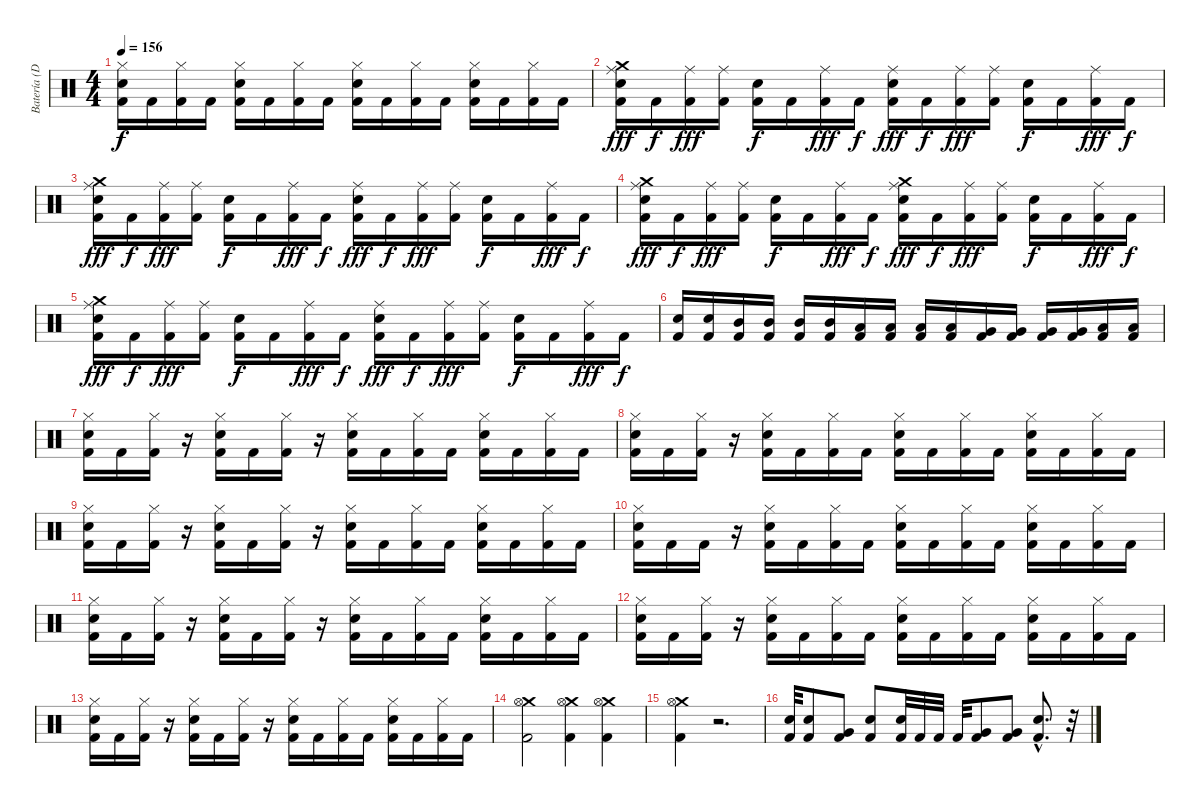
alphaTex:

\track ("Batería (Dani)" "Batería (D") {instrument percussion}
\staff {score}
\articulation defaults
\ts (4 4)
\tempo 156
\clef neutral
\ks c
("Hi-Hat (closed)" "Snare (hit) 2" "Kick (hit) 2").16{dy f} "Kick (hit) 2".16 ("Hi-Hat (closed)" "Kick (hit) 2").16 "Kick (hit) 2".16 ("Hi-Hat (closed)" "Snare (hit) 2" "Kick (hit) 2").16 "Kick (hit) 2".16 ("Hi-Hat (closed)" "Kick (hit) 2").16 "Kick (hit) 2".16 ("Hi-Hat (closed)" "Snare (hit) 2" "Kick (hit) 2").16 "Kick (hit) 2".16 ("Hi-Hat (closed)" "Kick (hit) 2").16 "Kick (hit) 2".16 ("Hi-Hat (closed)" "Snare (hit) 2" "Kick (hit) 2").16 "Kick (hit) 2".16 ("Hi-Hat (closed)" "Kick (hit) 2").16 "Kick (hit) 2".16 |
("Crash medium (hit)" "Ride (middle)" "Snare (hit) 2" "Kick (hit) 2").16{dy fff} "Kick (hit) 2".16{dy f} ("Ride (middle)" "Kick (hit) 2").16{dy fff} ("Ride (middle)" "Kick (hit) 2").16 ("Snare (hit) 2" "Kick (hit) 2").16{dy f} "Kick (hit) 2".16 ("Ride (middle)" "Kick (hit) 2").16{dy fff} "Kick (hit) 2".16{dy f} ("Ride (middle)" "Snare (hit) 2" "Kick (hit) 2").16{dy fff} "Kick (hit) 2".16{dy f} ("Ride (middle)" "Kick (hit) 2").16{dy fff} ("Ride (middle)" "Kick (hit) 2").16 ("Snare (hit) 2" "Kick (hit) 2").16{dy f} "Kick (hit) 2".16 ("Ride (middle)" "Kick (hit) 2").16{dy fff} "Kick (hit) 2".16{dy f} |
("Crash medium (hit)" "Ride (middle)" "Snare (hit) 2" "Kick (hit) 2").16{dy fff} "Kick (hit) 2".16{dy f} ("Ride (middle)" "Kick (hit) 2").16{dy fff} ("Ride (middle)" "Kick (hit) 2").16 ("Snare (hit) 2" "Kick (hit) 2").16{dy f} "Kick (hit) 2".16 ("Ride (middle)" "Kick (hit) 2").16{dy fff} "Kick (hit) 2".16{dy f} ("Ride (middle)" "Snare (hit) 2" "Kick (hit) 2").16{dy fff} "Kick (hit) 2".16{dy f} ("Ride (middle)" "Kick (hit) 2").16{dy fff} ("Ride (middle)" "Kick (hit) 2").16 ("Snare (hit) 2" "Kick (hit) 2").16{dy f} "Kick (hit) 2".16 ("Ride (middle)" "Kick (hit) 2").16{dy fff} "Kick (hit) 2".16{dy f} |
("Crash medium (hit)" "Ride (middle)" "Snare (hit) 2" "Kick (hit) 2").16{dy fff} "Kick (hit) 2".16{dy f} ("Ride (middle)" "Kick (hit) 2").16{dy fff} ("Ride (middle)" "Kick (hit) 2").16 ("Snare (hit) 2" "Kick (hit) 2").16{dy f} "Kick (hit) 2".16 ("Ride (middle)" "Kick (hit) 2").16{dy fff} "Kick (hit) 2".16{dy f} ("Crash medium (hit)" "Ride (middle)" "Snare (hit) 2" "Kick (hit) 2").16{dy fff} "Kick (hit) 2".16{dy f} ("Ride (middle)" "Kick (hit) 2").16{dy fff} ("Ride (middle)" "Kick (hit) 2").16 ("Snare (hit) 2" "Kick (hit) 2").16{dy f} "Kick (hit) 2".16 ("Ride (middle)" "Kick (hit) 2").16{dy fff} "Kick (hit) 2".16{dy f} |
("Crash medium (hit)" "Ride (middle)" "Snare (hit) 2" "Kick (hit) 2").16{dy fff} "Kick (hit) 2".16{dy f} ("Ride (middle)" "Kick (hit) 2").16{dy fff} ("Ride (middle)" "Kick (hit) 2").16 ("Snare (hit) 2" "Kick (hit) 2").16{dy f} "Kick (hit) 2".16 ("Ride (middle)" "Kick (hit) 2").16{dy fff} "Kick (hit) 2".16{dy f} ("Ride (middle)" "Snare (hit) 2" "Kick (hit) 2").16{dy fff} "Kick (hit) 2".16{dy f} ("Ride (middle)" "Kick (hit) 2").16{dy fff} ("Ride (middle)" "Kick (hit) 2").16 ("Snare (hit) 2" "Kick (hit) 2").16{dy f} "Kick (hit) 2".16 ("Ride (middle)" "Kick (hit) 2").16{dy fff} "Kick (hit) 2".16{dy f} |
("Snare (hit) 2" "Kick (hit) 2").16 ("Snare (hit) 2" "Kick (hit) 2").16 ("Mid Tom (hit)" "Kick (hit) 2").16 ("Mid Tom (hit)" "Kick (hit) 2").16 ("Mid Tom (hit)" "Kick (hit) 2").16 ("Mid Tom (hit)" "Kick (hit) 2").16 ("Low Tom (hit)" "Kick (hit) 2").16 ("Low Tom (hit)" "Kick (hit) 2").16 ("Low Tom (hit)" "Kick (hit) 2").16 ("Low Tom (hit)" "Kick (hit) 2").16 ("Very Low Tom (hit)" "Kick (hit) 2").16 ("Very Low Tom (hit)" "Kick (hit) 2").16 ("Very Low Tom (hit)" "Kick (hit) 2").16 ("Very Low Tom (hit)" "Kick (hit) 2").16 ("Low Floor Tom (hit)" "Kick (hit) 2").16 ("Low Floor Tom (hit)" "Kick (hit) 2").16 |
("Hi-Hat (closed)" "Snare (hit) 2" "Kick (hit) 2").16 "Kick (hit) 2".16 ("Hi-Hat (closed)" "Kick (hit) 2").16 r.16 ("Hi-Hat (closed)" "Snare (hit) 2" "Kick (hit) 2").16 "Kick (hit) 2".16 ("Hi-Hat (closed)" "Kick (hit) 2").16 r.16 ("Hi-Hat (closed)" "Snare (hit) 2" "Kick (hit) 2").16 "Kick (hit) 2".16 ("Hi-Hat (closed)" "Kick (hit) 2").16 "Kick (hit) 2".16 ("Hi-Hat (closed)" "Snare (hit) 2" "Kick (hit) 2").16 "Kick (hit) 2".16 ("Hi-Hat (closed)" "Kick (hit) 2").16 "Kick (hit) 2".16 |
("Hi-Hat (closed)" "Snare (hit) 2" "Kick (hit) 2").16 "Kick (hit) 2".16 ("Hi-Hat (closed)" "Kick (hit) 2").16 r.16 ("Hi-Hat (closed)" "Snare (hit) 2" "Kick (hit) 2").16 "Kick (hit) 2".16 ("Hi-Hat (closed)" "Kick (hit) 2").16 "Kick (hit) 2".16 ("Hi-Hat (closed)" "Snare (hit) 2" "Kick (hit) 2").16 "Kick (hit) 2".16 ("Hi-Hat (closed)" "Kick (hit) 2").16 "Kick (hit) 2".16 ("Hi-Hat (closed)" "Snare (hit) 2" "Kick (hit) 2").16 "Kick (hit) 2".16 ("Hi-Hat (closed)" "Kick (hit) 2").16 "Kick (hit) 2".16 |
("Hi-Hat (closed)" "Snare (hit) 2" "Kick (hit) 2").16 "Kick (hit) 2".16 ("Hi-Hat (closed)" "Kick (hit) 2").16 r.16 ("Hi-Hat (closed)" "Snare (hit) 2" "Kick (hit) 2").16 "Kick (hit) 2".16 ("Hi-Hat (closed)" "Kick (hit) 2").16 r.16 ("Hi-Hat (closed)" "Snare (hit) 2" "Kick (hit) 2").16 "Kick (hit) 2".16 ("Hi-Hat (closed)" "Kick (hit) 2").16 "Kick (hit) 2".16 ("Hi-Hat (closed)" "Snare (hit) 2" "Kick (hit) 2").16 "Kick (hit) 2".16 ("Hi-Hat (closed)" "Kick (hit) 2").16 "Kick (hit) 2".16 |
("Hi-Hat (closed)" "Snare (hit) 2" "Kick (hit) 2").16 "Kick (hit) 2".16 "Kick (hit) 2".16 r.16 ("Hi-Hat (closed)" "Snare (hit) 2" "Kick (hit) 2").16 "Kick (hit) 2".16 ("Hi-Hat (closed)" "Kick (hit) 2").16 "Kick (hit) 2".16 ("Hi-Hat (closed)" "Snare (hit) 2" "Kick (hit) 2").16 "Kick (hit) 2".16 ("Hi-Hat (closed)" "Kick (hit) 2").16 "Kick (hit) 2".16 ("Hi-Hat (closed)" "Snare (hit) 2" "Kick (hit) 2").16 "Kick (hit) 2".16 ("Hi-Hat (closed)" "Kick (hit) 2").16 "Kick (hit) 2".16 |
("Hi-Hat (closed)" "Snare (hit) 2" "Kick (hit) 2").16 "Kick (hit) 2".16 ("Hi-Hat (closed)" "Kick (hit) 2").16 r.16 ("Hi-Hat (closed)" "Snare (hit) 2" "Kick (hit) 2").16 "Kick (hit) 2".16 ("Hi-Hat (closed)" "Kick (hit) 2").16 r.16 ("Hi-Hat (closed)" "Snare (hit) 2" "Kick (hit) 2").16 "Kick (hit) 2".16 ("Hi-Hat (closed)" "Kick (hit) 2").16 "Kick (hit) 2".16 ("Hi-Hat (closed)" "Snare (hit) 2" "Kick (hit) 2").16 "Kick (hit) 2".16 ("Hi-Hat (closed)" "Kick (hit) 2").16 "Kick (hit) 2".16 |
("Hi-Hat (closed)" "Snare (hit) 2" "Kick (hit) 2").16 "Kick (hit) 2".16 ("Hi-Hat (closed)" "Kick (hit) 2").16 r.16 ("Hi-Hat (closed)" "Snare (hit) 2" "Kick (hit) 2").16 "Kick (hit) 2".16 ("Hi-Hat (closed)" "Kick (hit) 2").16 "Kick (hit) 2".16 ("Hi-Hat (closed)" "Snare (hit) 2" "Kick (hit) 2").16 "Kick (hit) 2".16 ("Hi-Hat (closed)" "Kick (hit) 2").16 "Kick (hit) 2".16 ("Hi-Hat (closed)" "Snare (hit) 2" "Kick (hit) 2").16 "Kick (hit) 2".16 ("Hi-Hat (closed)" "Kick (hit) 2").16 "Kick (hit) 2".16 |
("Hi-Hat (closed)" "Snare (hit) 2" "Kick (hit) 2").16 "Kick (hit) 2".16 ("Hi-Hat (closed)" "Kick (hit) 2").16 r.16 ("Hi-Hat (closed)" "Snare (hit) 2" "Kick (hit) 2").16 "Kick (hit) 2".16 ("Hi-Hat (closed)" "Kick (hit) 2").16 r.16 ("Hi-Hat (closed)" "Snare (hit) 2" "Kick (hit) 2").16 "Kick (hit) 2".16 ("Hi-Hat (closed)" "Kick (hit) 2").16 "Kick (hit) 2".16 ("Hi-Hat (closed)" "Snare (hit) 2" "Kick (hit) 2").16 "Kick (hit) 2".16 ("Hi-Hat (closed)" "Kick (hit) 2").16 "Kick (hit) 2".16 |
("Crash medium (hit)" "Hi-Hat (open)" "Kick (hit) 2").2 ("Crash medium (hit)" "Hi-Hat (open)" "Kick (hit) 2").4 ("Crash medium (hit)" "Hi-Hat (open)" "Kick (hit) 2").4 |
("Crash medium (hit)" "Hi-Hat (open)" "Kick (hit) 2").4 r.2{d} |
("Snare (hit) 2" "Kick (hit) 2").32 ("Snare (hit) 2" "Kick (hit) 2").8 ("Very Low Tom (hit)" "Kick (hit) 2").8 ("Snare (hit) 2" "Kick (hit) 2").8 ("Snare (hit) 2" "Kick (hit) 2").32 "Kick (hit) 2".32 "Kick (hit) 2".32 "Kick (hit) 2".32 ("Very Low Tom (hit)" "Kick (hit) 2").8 ("Very Low Tom (hit)" "Kick (hit) 2").8 ("Snare (hit) 2"{hac} "Kick (hit) 2"{hac}).8{d} r.32
